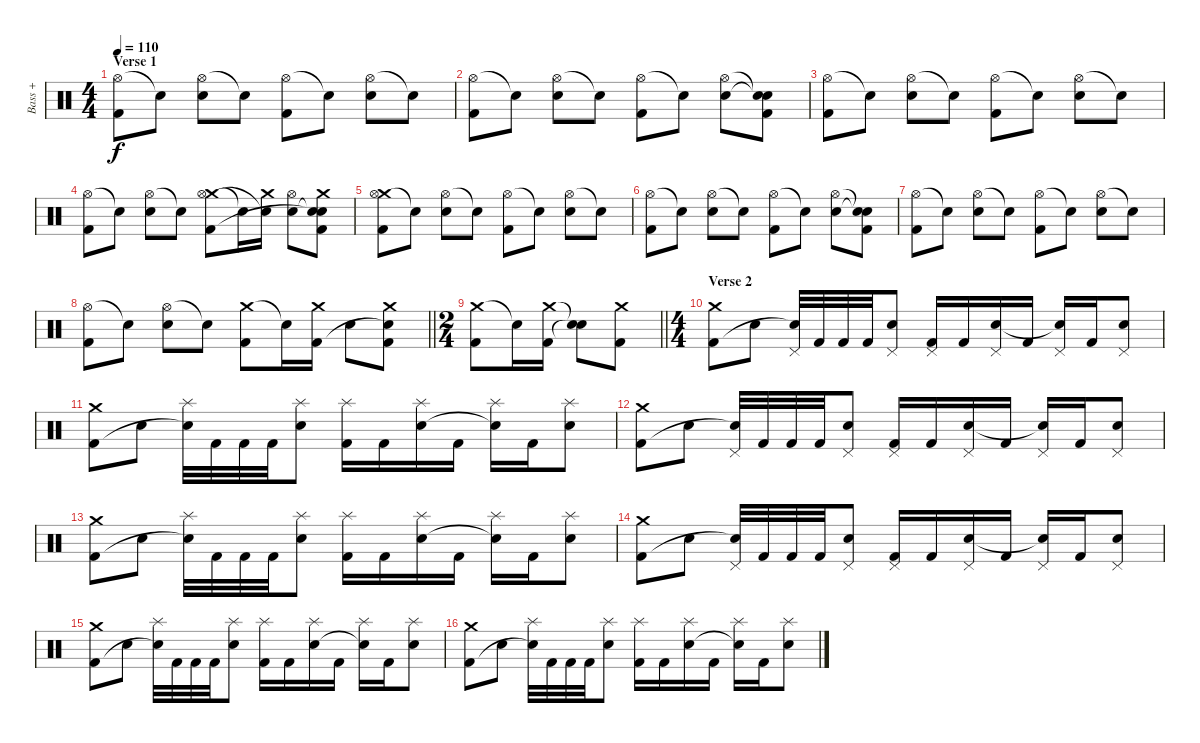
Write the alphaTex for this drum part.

\track ("  Bass +" "  Bass +") {instrument percussion}
\staff {score}
\articulation defaults
\ts (4 4)
\section ("" "Verse 1")
\tempo 110
\clef neutral
\ks c
("Hi-Hat (open)" "Kick (hit) 2").8{dy f} "Snare (hit)"{t}.8 ("Hi-Hat (open)" "Snare (hit) 2").8 "Snare (hit)"{t}.8 ("Hi-Hat (open)" "Kick (hit) 2").8 "Snare (hit)"{t}.8 ("Hi-Hat (open)" "Snare (hit) 2").8 "Snare (hit)"{t}.8 |
("Hi-Hat (open)" "Kick (hit) 2").8 "Snare (hit)"{t}.8 ("Hi-Hat (open)" "Snare (hit) 2").8 "Snare (hit)"{t}.8 ("Hi-Hat (open)" "Kick (hit) 2").8 "Snare (hit)"{t}.8 ("Hi-Hat (open)" "Snare (hit) 2").8 ("Snare (hit)"{t} "Snare (hit)"{t} "Kick (hit) 2").8 |
("Hi-Hat (open)" "Kick (hit) 2").8 "Snare (hit)"{t}.8 ("Hi-Hat (open)" "Snare (hit) 2").8 "Snare (hit)"{t}.8 ("Hi-Hat (open)" "Kick (hit) 2").8 "Snare (hit)"{t}.8 ("Hi-Hat (open)" "Snare (hit) 2").8 "Snare (hit)"{t}.8 |
("Hi-Hat (open)" "Kick (hit) 2").8 "Snare (hit)"{t}.8 ("Hi-Hat (open)" "Snare (hit) 2").8 "Snare (hit)"{t}.8 ("Crash medium (hit)" "Hi-Hat (open)" "Kick (hit) 2").8 "Snare (hit)"{t}.16 ("Crash medium (hit)" "Snare (hit)"{t}).16 ("Hi-Hat (open)" "Snare (hit) 2").8 ("Crash medium (hit)" "Snare (hit)"{t} "Snare (hit)"{t} "Kick (hit) 2").8 |
("Crash medium (hit)" "Hi-Hat (open)" "Kick (hit) 2").8 "Snare (hit)"{t}.8 ("Hi-Hat (open)" "Snare (hit) 2").8 "Snare (hit)"{t}.8 ("Hi-Hat (open)" "Kick (hit) 2").8 "Snare (hit)"{t}.8 ("Hi-Hat (open)" "Snare (hit) 2").8 "Snare (hit)"{t}.8 |
("Hi-Hat (open)" "Kick (hit) 2").8 "Snare (hit)"{t}.8 ("Hi-Hat (open)" "Snare (hit) 2").8 "Snare (hit)"{t}.8 ("Hi-Hat (open)" "Kick (hit) 2").8 "Snare (hit)"{t}.8 ("Hi-Hat (open)" "Snare (hit) 2").8 ("Snare (hit)"{t} "Snare (hit)"{t} "Kick (hit) 2").8 |
("Hi-Hat (open)" "Kick (hit) 2").8 "Snare (hit)"{t}.8 ("Hi-Hat (open)" "Snare (hit) 2").8 "Snare (hit)"{t}.8 ("Hi-Hat (open)" "Kick (hit) 2").8 "Snare (hit)"{t}.8 ("Hi-Hat (open)" "Snare (hit) 2").8 "Snare (hit)"{t}.8 |
\barLineRight lightlight
("Hi-Hat (open)" "Kick (hit) 2").8 "Snare (hit)"{t}.8 ("Hi-Hat (open)" "Snare (hit) 2").8 "Snare (hit)"{t}.8 ("Crash medium (hit)" "Kick (hit) 2").8 "Snare (hit)"{t}.16 ("Crash medium (hit)" "Kick (hit) 2").16 "Snare (hit) 2".8 ("Crash medium (hit)" "Snare (hit)"{t} "Kick (hit) 2").8 |
\ts (2 4)
\barLineRight lightlight
("Crash medium (hit)" "Kick (hit) 2").8 "Snare (hit)"{t}.16 ("Crash medium (hit)" "Kick (hit) 2").16 ("Snare (hit)"{t} "Snare (hit)"{t}).8 ("Crash medium (hit)" "Kick (hit) 2").8 |
\ts (4 4)
\section ("" "Verse 2")
("Crash medium (hit)" "Kick (hit) 2").8 "Snare (hit) 2".8 ("Pedal Hi-Hat (hit)" "Snare (hit)"{t}).32 "Kick (hit) 2".32 "Kick (hit) 2".32 "Kick (hit) 2".32 ("Pedal Hi-Hat (hit)" "Snare (hit) 2").8 ("Pedal Hi-Hat (hit)" "Kick (hit) 2").16 "Kick (hit) 2".16 ("Pedal Hi-Hat (hit)" "Snare (hit) 2").16 "Kick (hit) 2".16 ("Pedal Hi-Hat (hit)" "Snare (hit)"{t}).16 "Kick (hit) 2".16 ("Pedal Hi-Hat (hit)" "Snare (hit) 2").8 |
("Crash medium (hit)" "Kick (hit) 2").8 "Snare (hit) 2".8 ("Splash (hit)" "Snare (hit)"{t}).32 "Kick (hit) 2".32 "Kick (hit) 2".32 "Kick (hit) 2".32 ("Splash (hit)" "Snare (hit) 2").8 ("Splash (hit)" "Kick (hit) 2").16 "Kick (hit) 2".16 ("Splash (hit)" "Snare (hit) 2").16 "Kick (hit) 2".16 ("Splash (hit)" "Snare (hit)"{t}).16 "Kick (hit) 2".16 ("Splash (hit)" "Snare (hit) 2").8 |
("Crash medium (hit)" "Kick (hit) 2").8 "Snare (hit) 2".8 ("Pedal Hi-Hat (hit)" "Snare (hit)"{t}).32 "Kick (hit) 2".32 "Kick (hit) 2".32 "Kick (hit) 2".32 ("Pedal Hi-Hat (hit)" "Snare (hit) 2").8 ("Pedal Hi-Hat (hit)" "Kick (hit) 2").16 "Kick (hit) 2".16 ("Pedal Hi-Hat (hit)" "Snare (hit) 2").16 "Kick (hit) 2".16 ("Pedal Hi-Hat (hit)" "Snare (hit)"{t}).16 "Kick (hit) 2".16 ("Pedal Hi-Hat (hit)" "Snare (hit) 2").8 |
("Crash medium (hit)" "Kick (hit) 2").8 "Snare (hit) 2".8 ("Splash (hit)" "Snare (hit)"{t}).32 "Kick (hit) 2".32 "Kick (hit) 2".32 "Kick (hit) 2".32 ("Splash (hit)" "Snare (hit) 2").8 ("Splash (hit)" "Kick (hit) 2").16 "Kick (hit) 2".16 ("Splash (hit)" "Snare (hit) 2").16 "Kick (hit) 2".16 ("Splash (hit)" "Snare (hit)"{t}).16 "Kick (hit) 2".16 ("Splash (hit)" "Snare (hit) 2").8 |
("Crash medium (hit)" "Kick (hit) 2").8 "Snare (hit) 2".8 ("Pedal Hi-Hat (hit)" "Snare (hit)"{t}).32 "Kick (hit) 2".32 "Kick (hit) 2".32 "Kick (hit) 2".32 ("Pedal Hi-Hat (hit)" "Snare (hit) 2").8 ("Pedal Hi-Hat (hit)" "Kick (hit) 2").16 "Kick (hit) 2".16 ("Pedal Hi-Hat (hit)" "Snare (hit) 2").16 "Kick (hit) 2".16 ("Pedal Hi-Hat (hit)" "Snare (hit)"{t}).16 "Kick (hit) 2".16 ("Pedal Hi-Hat (hit)" "Snare (hit) 2").8 |
("Crash medium (hit)" "Kick (hit) 2").8 "Snare (hit) 2".8 ("Splash (hit)" "Snare (hit)"{t}).32 "Kick (hit) 2".32 "Kick (hit) 2".32 "Kick (hit) 2".32 ("Splash (hit)" "Snare (hit) 2").8 ("Splash (hit)" "Kick (hit) 2").16 "Kick (hit) 2".16 ("Splash (hit)" "Snare (hit) 2").16 "Kick (hit) 2".16 ("Splash (hit)" "Snare (hit)"{t}).16 "Kick (hit) 2".16 ("Splash (hit)" "Snare (hit) 2").8 |
("Crash medium (hit)" "Kick (hit) 2").8 "Snare (hit) 2".8 ("Splash (hit)" "Snare (hit)"{t}).32 "Kick (hit) 2".32 "Kick (hit) 2".32 "Kick (hit) 2".32 ("Splash (hit)" "Snare (hit) 2").8 ("Splash (hit)" "Kick (hit) 2").16 "Kick (hit) 2".16 ("Splash (hit)" "Snare (hit) 2").16 "Kick (hit) 2".16 ("Splash (hit)" "Snare (hit)"{t}).16 "Kick (hit) 2".16 ("Splash (hit)" "Snare (hit) 2").8
